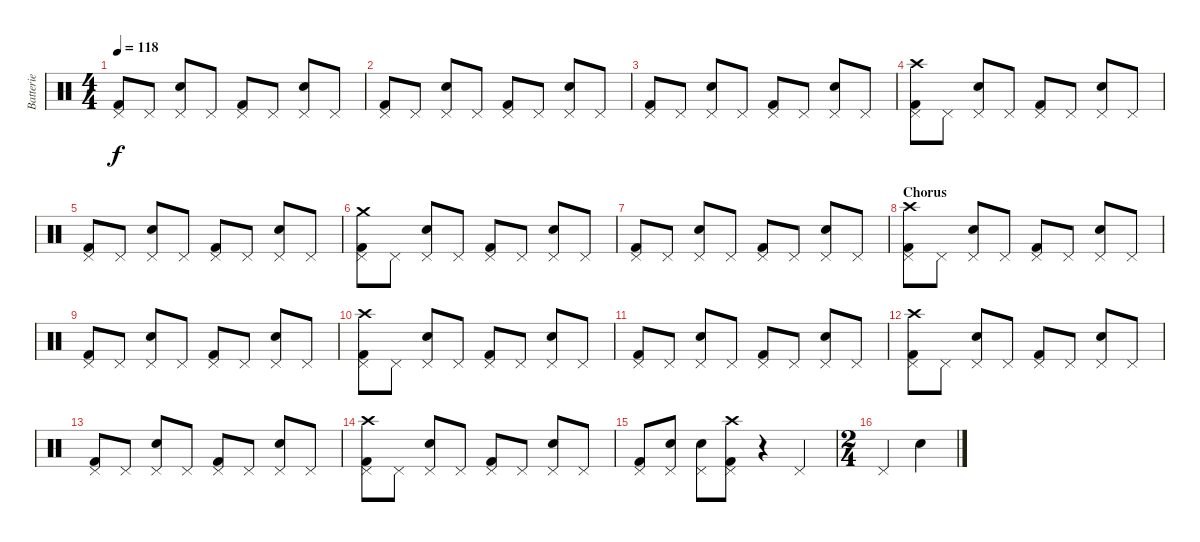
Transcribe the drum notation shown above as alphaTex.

\track ("Batterie" "Batterie") {instrument percussion}
\staff {score}
\articulation defaults
\ts (4 4)
\tempo 118
\clef neutral
\ks c
("Pedal Hi-Hat (hit)" "Kick (hit) 2").8{dy f} "Pedal Hi-Hat (hit)".8 ("Pedal Hi-Hat (hit)" "Snare (hit) 2").8 "Pedal Hi-Hat (hit)".8 ("Pedal Hi-Hat (hit)" "Kick (hit) 2").8 "Pedal Hi-Hat (hit)".8 ("Pedal Hi-Hat (hit)" "Snare (hit) 2").8 "Pedal Hi-Hat (hit)".8 |
("Pedal Hi-Hat (hit)" "Kick (hit) 2").8 "Pedal Hi-Hat (hit)".8 ("Pedal Hi-Hat (hit)" "Snare (hit) 2").8 "Pedal Hi-Hat (hit)".8 ("Pedal Hi-Hat (hit)" "Kick (hit) 2").8 "Pedal Hi-Hat (hit)".8 ("Pedal Hi-Hat (hit)" "Snare (hit) 2").8 "Pedal Hi-Hat (hit)".8 |
("Pedal Hi-Hat (hit)" "Kick (hit) 2").8 "Pedal Hi-Hat (hit)".8 ("Pedal Hi-Hat (hit)" "Snare (hit) 2").8 "Pedal Hi-Hat (hit)".8 ("Pedal Hi-Hat (hit)" "Kick (hit) 2").8 "Pedal Hi-Hat (hit)".8 ("Pedal Hi-Hat (hit)" "Snare (hit) 2").8 "Pedal Hi-Hat (hit)".8 |
("Pedal Hi-Hat (hit)" "Crash high (hit)" "Kick (hit) 2").8 "Pedal Hi-Hat (hit)".8 ("Pedal Hi-Hat (hit)" "Snare (hit) 2").8 "Pedal Hi-Hat (hit)".8 ("Pedal Hi-Hat (hit)" "Kick (hit) 2").8 "Pedal Hi-Hat (hit)".8 ("Pedal Hi-Hat (hit)" "Snare (hit) 2").8 "Pedal Hi-Hat (hit)".8 |
("Pedal Hi-Hat (hit)" "Kick (hit) 2").8 "Pedal Hi-Hat (hit)".8 ("Pedal Hi-Hat (hit)" "Snare (hit) 2").8 "Pedal Hi-Hat (hit)".8 ("Pedal Hi-Hat (hit)" "Kick (hit) 2").8 "Pedal Hi-Hat (hit)".8 ("Pedal Hi-Hat (hit)" "Snare (hit) 2").8 "Pedal Hi-Hat (hit)".8 |
("Pedal Hi-Hat (hit)" "Crash medium (hit)" "Kick (hit) 2").8 "Pedal Hi-Hat (hit)".8 ("Pedal Hi-Hat (hit)" "Snare (hit) 2").8 "Pedal Hi-Hat (hit)".8 ("Pedal Hi-Hat (hit)" "Kick (hit) 2").8 "Pedal Hi-Hat (hit)".8 ("Pedal Hi-Hat (hit)" "Snare (hit) 2").8 "Pedal Hi-Hat (hit)".8 |
("Pedal Hi-Hat (hit)" "Kick (hit) 2").8 "Pedal Hi-Hat (hit)".8 ("Pedal Hi-Hat (hit)" "Snare (hit) 2").8 "Pedal Hi-Hat (hit)".8 ("Pedal Hi-Hat (hit)" "Kick (hit) 2").8 "Pedal Hi-Hat (hit)".8 ("Pedal Hi-Hat (hit)" "Snare (hit) 2").8 "Pedal Hi-Hat (hit)".8 |
\section ("" "Chorus")
("Pedal Hi-Hat (hit)" "Crash high (hit)" "Kick (hit) 2").8 "Pedal Hi-Hat (hit)".8 ("Pedal Hi-Hat (hit)" "Snare (hit) 2").8 "Pedal Hi-Hat (hit)".8 ("Pedal Hi-Hat (hit)" "Kick (hit) 2").8 "Pedal Hi-Hat (hit)".8 ("Pedal Hi-Hat (hit)" "Snare (hit) 2").8 "Pedal Hi-Hat (hit)".8 |
("Pedal Hi-Hat (hit)" "Kick (hit) 2").8 "Pedal Hi-Hat (hit)".8 ("Pedal Hi-Hat (hit)" "Snare (hit) 2").8 "Pedal Hi-Hat (hit)".8 ("Pedal Hi-Hat (hit)" "Kick (hit) 2").8 "Pedal Hi-Hat (hit)".8 ("Pedal Hi-Hat (hit)" "Snare (hit) 2").8 "Pedal Hi-Hat (hit)".8 |
("Pedal Hi-Hat (hit)" "Crash high (hit)" "Kick (hit) 2").8 "Pedal Hi-Hat (hit)".8 ("Pedal Hi-Hat (hit)" "Snare (hit) 2").8 "Pedal Hi-Hat (hit)".8 ("Pedal Hi-Hat (hit)" "Kick (hit) 2").8 "Pedal Hi-Hat (hit)".8 ("Pedal Hi-Hat (hit)" "Snare (hit) 2").8 "Pedal Hi-Hat (hit)".8 |
("Pedal Hi-Hat (hit)" "Kick (hit) 2").8 "Pedal Hi-Hat (hit)".8 ("Pedal Hi-Hat (hit)" "Snare (hit) 2").8 "Pedal Hi-Hat (hit)".8 ("Pedal Hi-Hat (hit)" "Kick (hit) 2").8 "Pedal Hi-Hat (hit)".8 ("Pedal Hi-Hat (hit)" "Snare (hit) 2").8 "Pedal Hi-Hat (hit)".8 |
("Pedal Hi-Hat (hit)" "Crash high (hit)" "Kick (hit) 2").8 "Pedal Hi-Hat (hit)".8 ("Pedal Hi-Hat (hit)" "Snare (hit) 2").8 "Pedal Hi-Hat (hit)".8 ("Pedal Hi-Hat (hit)" "Kick (hit) 2").8 "Pedal Hi-Hat (hit)".8 ("Pedal Hi-Hat (hit)" "Snare (hit) 2").8 "Pedal Hi-Hat (hit)".8 |
("Pedal Hi-Hat (hit)" "Kick (hit) 2").8 "Pedal Hi-Hat (hit)".8 ("Pedal Hi-Hat (hit)" "Snare (hit) 2").8 "Pedal Hi-Hat (hit)".8 ("Pedal Hi-Hat (hit)" "Kick (hit) 2").8 "Pedal Hi-Hat (hit)".8 ("Pedal Hi-Hat (hit)" "Snare (hit) 2").8 "Pedal Hi-Hat (hit)".8 |
("Pedal Hi-Hat (hit)" "Crash high (hit)" "Kick (hit) 2").8 "Pedal Hi-Hat (hit)".8 ("Pedal Hi-Hat (hit)" "Snare (hit) 2").8 "Pedal Hi-Hat (hit)".8 ("Pedal Hi-Hat (hit)" "Kick (hit) 2").8 "Pedal Hi-Hat (hit)".8 ("Pedal Hi-Hat (hit)" "Snare (hit) 2").8 "Pedal Hi-Hat (hit)".8 |
("Pedal Hi-Hat (hit)" "Kick (hit) 2").8 ("Pedal Hi-Hat (hit)" "Snare (hit) 2").8 ("Pedal Hi-Hat (hit)" "Snare (hit) 2").8 ("Pedal Hi-Hat (hit)" "Crash high (hit)" "Kick (hit) 2").8 r.4 "Pedal Hi-Hat (hit)".4 |
\ts (2 4)
"Pedal Hi-Hat (hit)".4 "Snare (hit) 2".4
